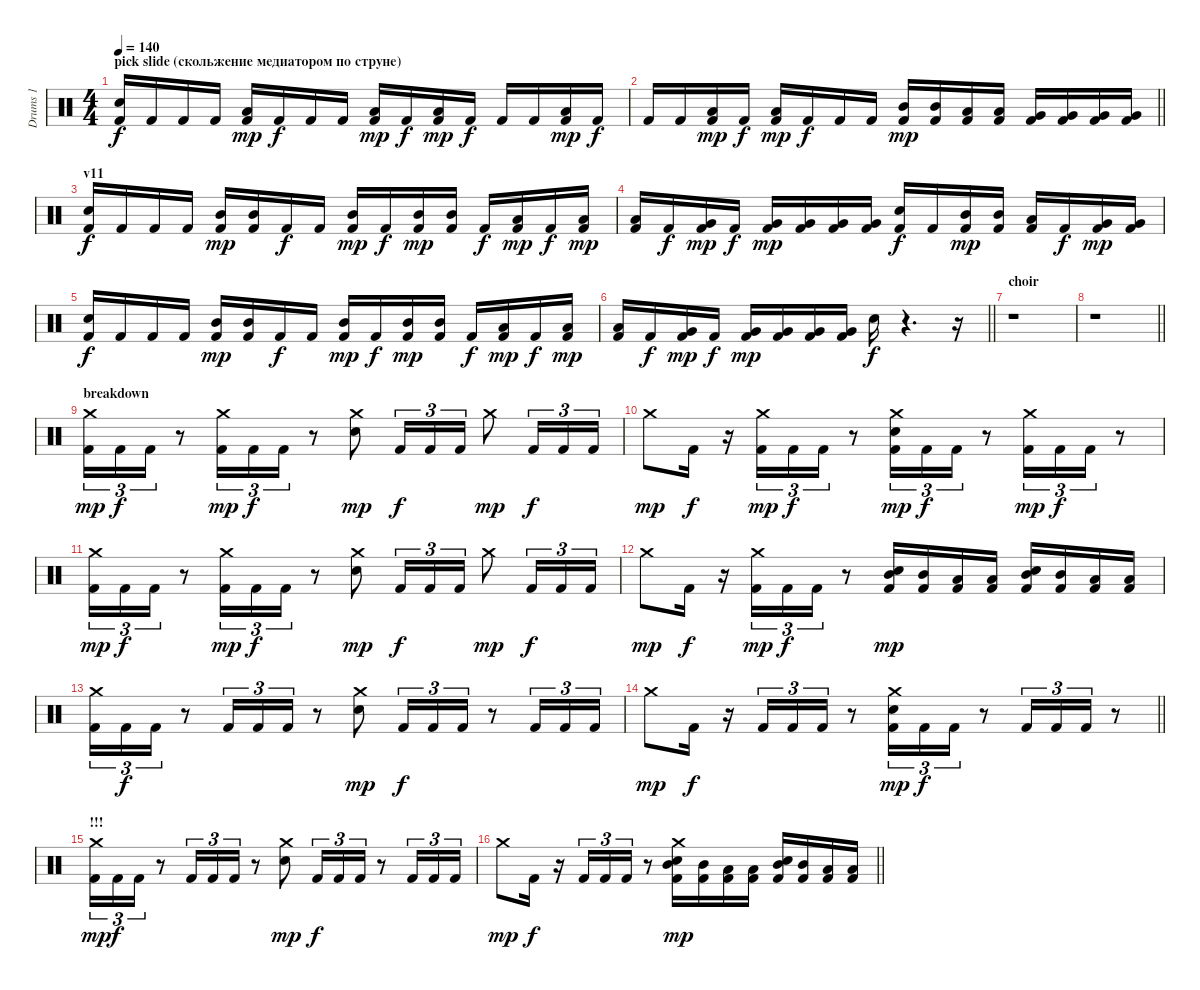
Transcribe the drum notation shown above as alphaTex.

\track ("Drums 1" "Drums 1") {instrument percussion}
\staff {score}
\articulation defaults
\ts (4 4)
\section ("" "pick slide (скольжение медиатором по струне)")
\tempo 140
\clef neutral
\ks c
("Kick (hit) 2" "Snare (hit) 2").16{dy f} "Kick (hit) 2".16 "Kick (hit) 2".16 "Kick (hit) 2".16 ("Low Tom (hit)" "Kick (hit) 2").16{dy mp} "Kick (hit) 2".16{dy f} "Kick (hit) 2".16 "Kick (hit) 2".16 ("Low Tom (hit)" "Kick (hit) 2").16{dy mp} "Kick (hit) 2".16{dy f} ("Low Tom (hit)" "Kick (hit) 2").16{dy mp} "Kick (hit) 2".16{dy f} "Kick (hit) 2".16 "Kick (hit) 2".16 ("Low Tom (hit)" "Kick (hit) 2").16{dy mp} "Kick (hit) 2".16{dy f} |
\barLineRight lightlight "Kick (hit) 2".16 "Kick (hit) 2".16
("Low Tom (hit)" "Kick (hit) 2").16{dy mp} "Kick (hit) 2".16{dy f} ("Low Tom (hit)" "Kick (hit) 2").16{dy mp} "Kick (hit) 2".16{dy f} "Kick (hit) 2".16 "Kick (hit) 2".16 ("Mid Tom (hit)" "Kick (hit) 2").16{dy mp} ("Mid Tom (hit)" "Kick (hit) 2").16 ("Low Tom (hit)" "Kick (hit) 2").16 ("Low Tom (hit)" "Kick (hit) 2").16 ("Very Low Tom (hit)" "Kick (hit) 2").16 ("Very Low Tom (hit)" "Kick (hit) 2").16 ("Very Low Tom (hit)" "Kick (hit) 2").16 ("Very Low Tom (hit)" "Kick (hit) 2").16 |
\section ("" "v11")
("Kick (hit) 2" "Snare (hit) 2").16{dy f} "Kick (hit) 2".16 "Kick (hit) 2".16 "Kick (hit) 2".16 ("Mid Tom (hit)" "Kick (hit) 2").16{dy mp} ("Mid Tom (hit)" "Kick (hit) 2").16 "Kick (hit) 2".16{dy f} "Kick (hit) 2".16 ("Mid Tom (hit)" "Kick (hit) 2").16{dy mp} "Kick (hit) 2".16{dy f} ("Mid Tom (hit)" "Kick (hit) 2").16{dy mp} ("Mid Tom (hit)" "Kick (hit) 2").16 "Kick (hit) 2".16{dy f} ("Kick (hit) 2" "Low Tom (hit)").16{dy mp} "Kick (hit) 2".16{dy f} ("Low Tom (hit)" "Kick (hit) 2").16{dy mp} |
("Kick (hit) 2" "Low Tom (hit)").16 "Kick (hit) 2".16{dy f} ("Kick (hit) 2" "Very Low Tom (hit)").16{dy mp} "Kick (hit) 2".16{dy f} ("Very Low Tom (hit)" "Kick (hit) 2").16{dy mp} ("Kick (hit) 2" "Very Low Tom (hit)").16 ("Very Low Tom (hit)" "Kick (hit) 2").16 ("Very Low Tom (hit)" "Kick (hit) 2").16 ("Snare (hit) 2" "Kick (hit) 2").16{dy f} "Kick (hit) 2".16 ("Kick (hit) 2" "Mid Tom (hit)").16{dy mp} ("Kick (hit) 2" "Mid Tom (hit)").16 ("Low Tom (hit)" "Kick (hit) 2").16 "Kick (hit) 2".16{dy f} ("Very Low Tom (hit)" "Kick (hit) 2").16{dy mp} ("Very Low Tom (hit)" "Kick (hit) 2").16 |
("Kick (hit) 2" "Snare (hit) 2").16{dy f} "Kick (hit) 2".16 "Kick (hit) 2".16 "Kick (hit) 2".16 ("Mid Tom (hit)" "Kick (hit) 2").16{dy mp} ("Mid Tom (hit)" "Kick (hit) 2").16 "Kick (hit) 2".16{dy f} "Kick (hit) 2".16 ("Mid Tom (hit)" "Kick (hit) 2").16{dy mp} "Kick (hit) 2".16{dy f} ("Mid Tom (hit)" "Kick (hit) 2").16{dy mp} ("Mid Tom (hit)" "Kick (hit) 2").16 "Kick (hit) 2".16{dy f} ("Low Tom (hit)" "Kick (hit) 2").16{dy mp} "Kick (hit) 2".16{dy f} ("Low Tom (hit)" "Kick (hit) 2").16{dy mp} |
\barLineRight lightlight
("Low Tom (hit)" "Kick (hit) 2").16 "Kick (hit) 2".16{dy f} ("Very Low Tom (hit)" "Kick (hit) 2").16{dy mp} "Kick (hit) 2".16{dy f} ("Very Low Tom (hit)" "Kick (hit) 2").16{dy mp} ("Very Low Tom (hit)" "Kick (hit) 2").16 ("Very Low Tom (hit)" "Kick (hit) 2").16 ("Very Low Tom (hit)" "Kick (hit) 2").16 "Snare (hit) 2".16{dy f} r.4{d} r.16 |
\section ("" "choir")
r.1 |
\barLineRight lightlight
r.1 |
\section ("" "breakdown")
("Crash medium (hit)" "Kick (hit) 2").16{tu (3 2) dy mp} "Kick (hit) 2".16{tu (3 2) dy f} "Kick (hit) 2".16{tu (3 2)} r.8 ("Crash medium (hit)" "Kick (hit) 2").16{tu (3 2) dy mp} "Kick (hit) 2".16{tu (3 2) dy f} "Kick (hit) 2".16{tu (3 2)} r.8 ("Crash medium (hit)" "Snare (hit) 2").8{dy mp} "Kick (hit) 2".16{tu (3 2) dy f} "Kick (hit) 2".16{tu (3 2)} "Kick (hit) 2".16{tu (3 2)} "Crash medium (hit)".8{dy mp} "Kick (hit) 2".16{tu (3 2) dy f} "Kick (hit) 2".16{tu (3 2)} "Kick (hit) 2".16{tu (3 2)} |
"Crash medium (hit)".8{dy mp} "Kick (hit) 2".16{dy f} r.16 ("Crash medium (hit)" "Kick (hit) 2").16{tu (3 2) dy mp} "Kick (hit) 2".16{tu (3 2) dy f} "Kick (hit) 2".16{tu (3 2)} r.8 ("Crash medium (hit)" "Snare (hit) 2" "Kick (hit) 2").16{tu (3 2) dy mp} "Kick (hit) 2".16{tu (3 2) dy f} "Kick (hit) 2".16{tu (3 2)} r.8 ("Crash medium (hit)" "Kick (hit) 2").16{tu (3 2) dy mp} "Kick (hit) 2".16{tu (3 2) dy f} "Kick (hit) 2".16{tu (3 2)} r.8 |
("Crash medium (hit)" "Kick (hit) 2").16{tu (3 2) dy mp} "Kick (hit) 2".16{tu (3 2) dy f} "Kick (hit) 2".16{tu (3 2)} r.8 ("Crash medium (hit)" "Kick (hit) 2").16{tu (3 2) dy mp} "Kick (hit) 2".16{tu (3 2) dy f} "Kick (hit) 2".16{tu (3 2)} r.8 ("Crash medium (hit)" "Snare (hit) 2").8{dy mp} "Kick (hit) 2".16{tu (3 2) dy f} "Kick (hit) 2".16{tu (3 2)} "Kick (hit) 2".16{tu (3 2)} "Crash medium (hit)".8{dy mp} "Kick (hit) 2".16{tu (3 2) dy f} "Kick (hit) 2".16{tu (3 2)} "Kick (hit) 2".16{tu (3 2)} |
"Crash medium (hit)".8{dy mp} "Kick (hit) 2".16{dy f} r.16 ("Crash medium (hit)" "Kick (hit) 2").16{tu (3 2) dy mp} "Kick (hit) 2".16{tu (3 2) dy f} "Kick (hit) 2".16{tu (3 2)} r.8 ("Snare (hit) 2" "Kick (hit) 2" "Mid Tom (hit)").16{dy mp} ("Mid Tom (hit)" "Kick (hit) 2").16 ("Kick (hit) 2" "Low Tom (hit)").16 ("Low Tom (hit)" "Kick (hit) 2").16 ("Mid Tom (hit)" "Snare (hit) 2" "Kick (hit) 2").16 ("Mid Tom (hit)" "Kick (hit) 2").16 ("Kick (hit) 2" "Low Tom (hit)").16 ("Kick (hit) 2" "Low Tom (hit)").16 |
("Kick (hit) 2" "Crash medium (hit)").16{tu (3 2)} "Kick (hit) 2".16{tu (3 2) dy f} "Kick (hit) 2".16{tu (3 2)} r.8 "Kick (hit) 2".16{tu (3 2)} "Kick (hit) 2".16{tu (3 2)} "Kick (hit) 2".16{tu (3 2)} r.8 ("Crash medium (hit)" "Snare (hit) 2").8{dy mp} "Kick (hit) 2".16{tu (3 2) dy f} "Kick (hit) 2".16{tu (3 2)} "Kick (hit) 2".16{tu (3 2)} r.8 "Kick (hit) 2".16{tu (3 2)} "Kick (hit) 2".16{tu (3 2)} "Kick (hit) 2".16{tu (3 2)} |
\barLineRight lightlight "Crash medium (hit)".8{dy mp} "Kick (hit) 2".16{dy f}
r.16 "Kick (hit) 2".16{tu (3 2)} "Kick (hit) 2".16{tu (3 2)} "Kick (hit) 2".16{tu (3 2)} r.8 ("Crash medium (hit)" "Snare (hit) 2" "Kick (hit) 2").16{tu (3 2) dy mp} "Kick (hit) 2".16{tu (3 2) dy f} "Kick (hit) 2".16{tu (3 2)} r.8 "Kick (hit) 2".16{tu (3 2)} "Kick (hit) 2".16{tu (3 2)} "Kick (hit) 2".16{tu (3 2)} r.8 |
\section ("" "!!!")
("Crash medium (hit)" "Kick (hit) 2").16{tu (3 2) dy mp} "Kick (hit) 2".16{tu (3 2) dy f} "Kick (hit) 2".16{tu (3 2)} r.8 "Kick (hit) 2".16{tu (3 2)} "Kick (hit) 2".16{tu (3 2)} "Kick (hit) 2".16{tu (3 2)} r.8 ("Crash medium (hit)" "Snare (hit) 2").8{dy mp} "Kick (hit) 2".16{tu (3 2) dy f} "Kick (hit) 2".16{tu (3 2)} "Kick (hit) 2".16{tu (3 2)} r.8 "Kick (hit) 2".16{tu (3 2)} "Kick (hit) 2".16{tu (3 2)} "Kick (hit) 2".16{tu (3 2)} |
\barLineRight lightlight "Crash medium (hit)".8{dy mp} "Kick (hit) 2".16{dy f}
r.16 "Kick (hit) 2".16{tu (3 2)} "Kick (hit) 2".16{tu (3 2)} "Kick (hit) 2".16{tu (3 2)} r.8 ("Crash medium (hit)" "Snare (hit) 2" "Kick (hit) 2" "Mid Tom (hit)").16{dy mp} ("Mid Tom (hit)" "Kick (hit) 2").16 ("Kick (hit) 2" "Low Tom (hit)").16 ("Low Tom (hit)" "Kick (hit) 2").16 ("Snare (hit) 2" "Kick (hit) 2" "Mid Tom (hit)").16 ("Mid Tom (hit)" "Kick (hit) 2").16 ("Kick (hit) 2" "Low Tom (hit)").16 ("Low Tom (hit)" "Kick (hit) 2").16
